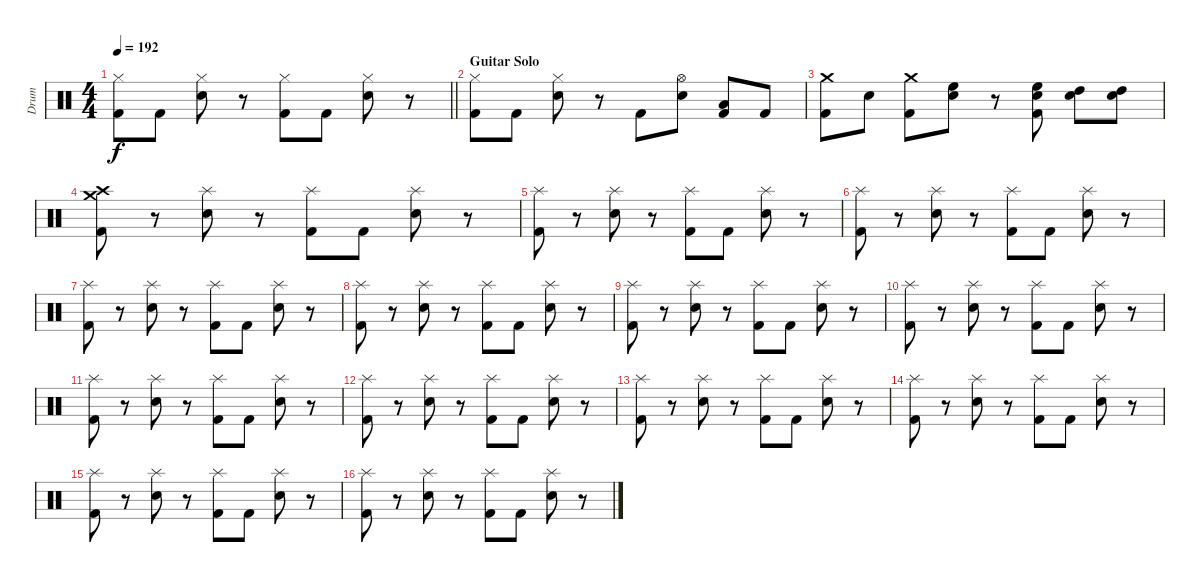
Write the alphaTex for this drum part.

\track ("Drum" "Drum") {instrument percussion}
\staff {score}
\articulation defaults
\ts (4 4)
\tempo 192
\clef neutral
\barLineRight lightlight
\ks c
("Hi-Hat (closed)" "Kick (hit) 2").8{dy f} "Kick (hit) 2".8 ("Hi-Hat (closed)" "Electric Snare (hit)").8 r.8 ("Hi-Hat (closed)" "Kick (hit) 2").8 "Kick (hit) 2".8 ("Hi-Hat (closed)" "Electric Snare (hit)").8 r.8 |
\section ("" "Guitar Solo")
("Hi-Hat (closed)" "Kick (hit) 2").8 "Kick (hit) 2".8 ("Hi-Hat (closed)" "Electric Snare (hit)").8 r.8 "Kick (hit) 2".8 ("Hi-Hat (open)" "Electric Snare (hit)").8 ("Low Tom (hit)" "Kick (hit) 2").8 "Kick (hit) 2".8 |
("Crash medium (hit)" "Kick (hit) 2").8 "Electric Snare (hit)".8 ("Crash medium (hit)" "Kick (hit) 2").8 ("Snare (hit) 2" "High Floor Tom (hit)").8 r.8 ("Snare (hit) 2" "High Floor Tom (hit)" "Kick (hit) 2").8 ("Snare (hit) 2" "High Tom (hit)").8 ("Snare (hit) 2" "High Tom (hit)").8 |
("Crash high (hit)" "Crash medium (hit)" "Kick (hit) 2").8 r.8 ("Splash (hit)" "Electric Snare (hit)").8 r.8 ("Splash (hit)" "Kick (hit) 2").8 "Kick (hit) 2".8 ("Splash (hit)" "Electric Snare (hit)").8 r.8 |
("Splash (hit)" "Kick (hit) 2").8 r.8 ("Splash (hit)" "Electric Snare (hit)").8 r.8 ("Splash (hit)" "Kick (hit) 2").8 "Kick (hit) 2".8 ("Splash (hit)" "Electric Snare (hit)").8 r.8 |
("Splash (hit)" "Kick (hit) 2").8 r.8 ("Splash (hit)" "Electric Snare (hit)").8 r.8 ("Splash (hit)" "Kick (hit) 2").8 "Kick (hit) 2".8 ("Splash (hit)" "Electric Snare (hit)").8 r.8 |
("Splash (hit)" "Kick (hit) 2").8 r.8 ("Splash (hit)" "Electric Snare (hit)").8 r.8 ("Splash (hit)" "Kick (hit) 2").8 "Kick (hit) 2".8 ("Splash (hit)" "Electric Snare (hit)").8 r.8 |
("Splash (hit)" "Kick (hit) 2").8 r.8 ("Splash (hit)" "Electric Snare (hit)").8 r.8 ("Splash (hit)" "Kick (hit) 2").8 "Kick (hit) 2".8 ("Splash (hit)" "Electric Snare (hit)").8 r.8 |
("Splash (hit)" "Kick (hit) 2").8 r.8 ("Splash (hit)" "Electric Snare (hit)").8 r.8 ("Splash (hit)" "Kick (hit) 2").8 "Kick (hit) 2".8 ("Splash (hit)" "Electric Snare (hit)").8 r.8 |
("Splash (hit)" "Kick (hit) 2").8 r.8 ("Splash (hit)" "Electric Snare (hit)").8 r.8 ("Splash (hit)" "Kick (hit) 2").8 "Kick (hit) 2".8 ("Splash (hit)" "Electric Snare (hit)").8 r.8 |
("Splash (hit)" "Kick (hit) 2").8 r.8 ("Splash (hit)" "Electric Snare (hit)").8 r.8 ("Splash (hit)" "Kick (hit) 2").8 "Kick (hit) 2".8 ("Splash (hit)" "Electric Snare (hit)").8 r.8 |
("Splash (hit)" "Kick (hit) 2").8 r.8 ("Splash (hit)" "Electric Snare (hit)").8 r.8 ("Splash (hit)" "Kick (hit) 2").8 "Kick (hit) 2".8 ("Splash (hit)" "Electric Snare (hit)").8 r.8 |
("Splash (hit)" "Kick (hit) 2").8 r.8 ("Splash (hit)" "Electric Snare (hit)").8 r.8 ("Splash (hit)" "Kick (hit) 2").8 "Kick (hit) 2".8 ("Splash (hit)" "Electric Snare (hit)").8 r.8 |
("Splash (hit)" "Kick (hit) 2").8 r.8 ("Splash (hit)" "Electric Snare (hit)").8 r.8 ("Splash (hit)" "Kick (hit) 2").8 "Kick (hit) 2".8 ("Splash (hit)" "Electric Snare (hit)").8 r.8 |
("Splash (hit)" "Kick (hit) 2").8 r.8 ("Splash (hit)" "Electric Snare (hit)").8 r.8 ("Splash (hit)" "Kick (hit) 2").8 "Kick (hit) 2".8 ("Splash (hit)" "Electric Snare (hit)").8 r.8 |
("Splash (hit)" "Kick (hit) 2").8 r.8 ("Splash (hit)" "Electric Snare (hit)").8 r.8 ("Splash (hit)" "Kick (hit) 2").8 "Kick (hit) 2".8 ("Splash (hit)" "Electric Snare (hit)").8 r.8
